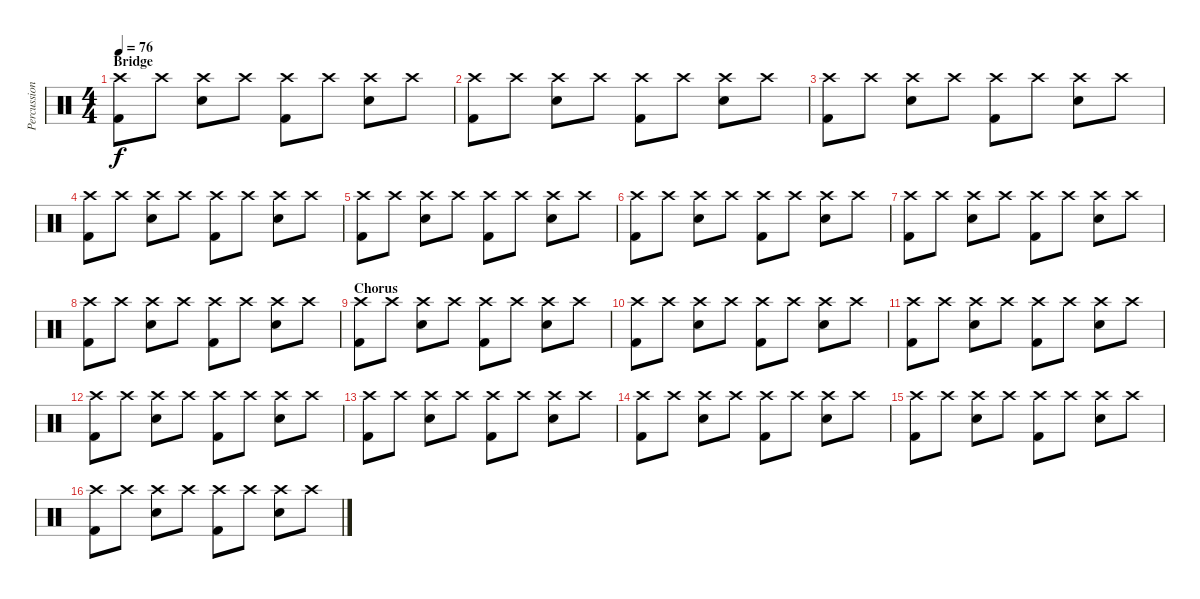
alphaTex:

\track ("Percussion" "Percussion") {instrument percussion}
\staff {score}
\articulation defaults
\ts (4 4)
\section ("" "Bridge")
\tempo 76
\clef neutral
\ks c
("Crash high (hit)" "Kick (hit) 2").8{dy f} "Crash high (hit)".8 ("Crash high (hit)" "Electric Snare (hit)").8 "Crash high (hit)".8 ("Crash high (hit)" "Kick (hit) 2").8 "Crash high (hit)".8 ("Crash high (hit)" "Electric Snare (hit)").8 "Crash high (hit)".8 |
("Crash high (hit)" "Kick (hit) 2").8 "Crash high (hit)".8 ("Crash high (hit)" "Electric Snare (hit)").8 "Crash high (hit)".8 ("Crash high (hit)" "Kick (hit) 2").8 "Crash high (hit)".8 ("Crash high (hit)" "Electric Snare (hit)").8 "Crash high (hit)".8 |
("Crash high (hit)" "Kick (hit) 2").8 "Crash high (hit)".8 ("Crash high (hit)" "Electric Snare (hit)").8 "Crash high (hit)".8 ("Crash high (hit)" "Kick (hit) 2").8 "Crash high (hit)".8 ("Crash high (hit)" "Electric Snare (hit)").8 "Crash high (hit)".8 |
("Crash high (hit)" "Kick (hit) 2").8 "Crash high (hit)".8 ("Crash high (hit)" "Electric Snare (hit)").8 "Crash high (hit)".8 ("Crash high (hit)" "Kick (hit) 2").8 "Crash high (hit)".8 ("Crash high (hit)" "Electric Snare (hit)").8 "Crash high (hit)".8 |
("Crash high (hit)" "Kick (hit) 2").8 "Crash high (hit)".8 ("Crash high (hit)" "Electric Snare (hit)").8 "Crash high (hit)".8 ("Crash high (hit)" "Kick (hit) 2").8 "Crash high (hit)".8 ("Crash high (hit)" "Electric Snare (hit)").8 "Crash high (hit)".8 |
("Crash high (hit)" "Kick (hit) 2").8 "Crash high (hit)".8 ("Crash high (hit)" "Electric Snare (hit)").8 "Crash high (hit)".8 ("Crash high (hit)" "Kick (hit) 2").8 "Crash high (hit)".8 ("Crash high (hit)" "Electric Snare (hit)").8 "Crash high (hit)".8 |
("Crash high (hit)" "Kick (hit) 2").8 "Crash high (hit)".8 ("Crash high (hit)" "Electric Snare (hit)").8 "Crash high (hit)".8 ("Crash high (hit)" "Kick (hit) 2").8 "Crash high (hit)".8 ("Crash high (hit)" "Electric Snare (hit)").8 "Crash high (hit)".8 |
("Crash high (hit)" "Kick (hit) 2").8 "Crash high (hit)".8 ("Crash high (hit)" "Electric Snare (hit)").8 "Crash high (hit)".8 ("Crash high (hit)" "Kick (hit) 2").8 "Crash high (hit)".8 ("Crash high (hit)" "Electric Snare (hit)").8 "Crash high (hit)".8 |
\section ("" "Chorus")
("Crash high (hit)" "Kick (hit) 2").8 "Crash high (hit)".8 ("Crash high (hit)" "Electric Snare (hit)").8 "Crash high (hit)".8 ("Crash high (hit)" "Kick (hit) 2").8 "Crash high (hit)".8 ("Crash high (hit)" "Electric Snare (hit)").8 "Crash high (hit)".8 |
("Crash high (hit)" "Kick (hit) 2").8 "Crash high (hit)".8 ("Crash high (hit)" "Electric Snare (hit)").8 "Crash high (hit)".8 ("Crash high (hit)" "Kick (hit) 2").8 "Crash high (hit)".8 ("Crash high (hit)" "Electric Snare (hit)").8 "Crash high (hit)".8 |
("Crash high (hit)" "Kick (hit) 2").8 "Crash high (hit)".8 ("Crash high (hit)" "Electric Snare (hit)").8 "Crash high (hit)".8 ("Crash high (hit)" "Kick (hit) 2").8 "Crash high (hit)".8 ("Crash high (hit)" "Electric Snare (hit)").8 "Crash high (hit)".8 |
("Crash high (hit)" "Kick (hit) 2").8 "Crash high (hit)".8 ("Crash high (hit)" "Electric Snare (hit)").8 "Crash high (hit)".8 ("Crash high (hit)" "Kick (hit) 2").8 "Crash high (hit)".8 ("Crash high (hit)" "Electric Snare (hit)").8 "Crash high (hit)".8 |
("Crash high (hit)" "Kick (hit) 2").8 "Crash high (hit)".8 ("Crash high (hit)" "Electric Snare (hit)").8 "Crash high (hit)".8 ("Crash high (hit)" "Kick (hit) 2").8 "Crash high (hit)".8 ("Crash high (hit)" "Electric Snare (hit)").8 "Crash high (hit)".8 |
("Crash high (hit)" "Kick (hit) 2").8 "Crash high (hit)".8 ("Crash high (hit)" "Electric Snare (hit)").8 "Crash high (hit)".8 ("Crash high (hit)" "Kick (hit) 2").8 "Crash high (hit)".8 ("Crash high (hit)" "Electric Snare (hit)").8 "Crash high (hit)".8 |
("Crash high (hit)" "Kick (hit) 2").8 "Crash high (hit)".8 ("Crash high (hit)" "Electric Snare (hit)").8 "Crash high (hit)".8 ("Crash high (hit)" "Kick (hit) 2").8 "Crash high (hit)".8 ("Crash high (hit)" "Electric Snare (hit)").8 "Crash high (hit)".8 |
("Crash high (hit)" "Kick (hit) 2").8 "Crash high (hit)".8 ("Crash high (hit)" "Electric Snare (hit)").8 "Crash high (hit)".8 ("Crash high (hit)" "Kick (hit) 2").8 "Crash high (hit)".8 ("Crash high (hit)" "Electric Snare (hit)").8 "Crash high (hit)".8
